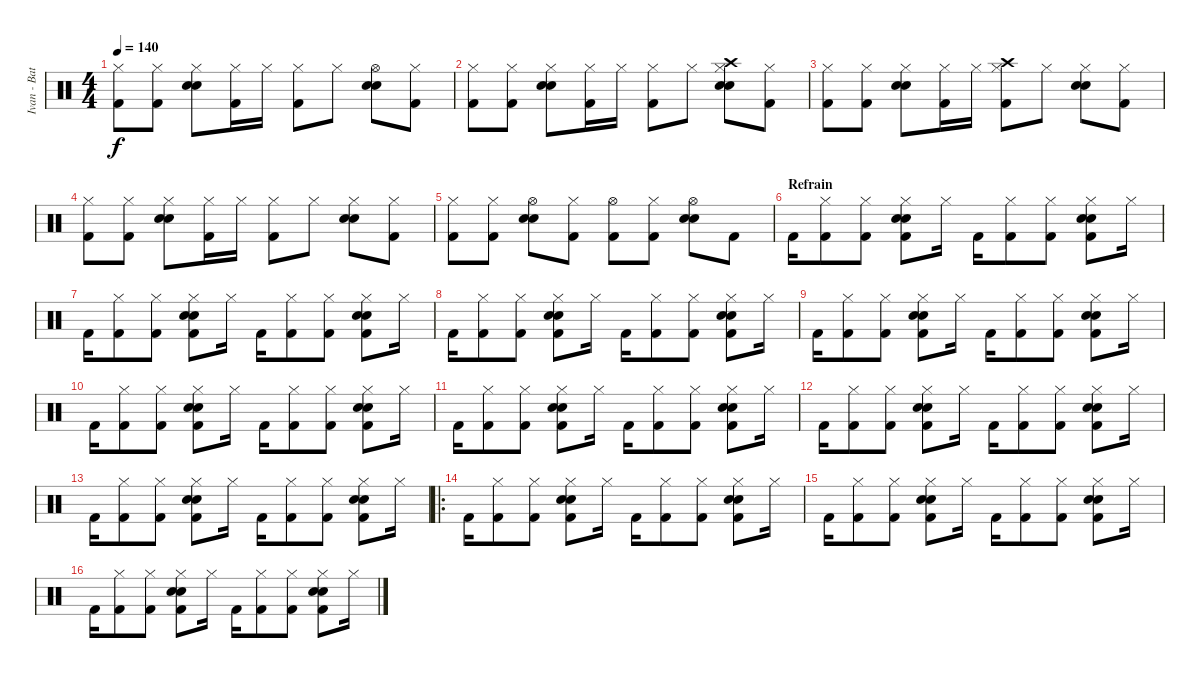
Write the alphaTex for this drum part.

\track ("Ivan - Batterie" "Ivan - Bat") {instrument percussion}
\staff {score}
\articulation defaults
\ts (4 4)
\tempo 140
\clef neutral
\ks c
("Hi-Hat (closed)" "Kick (hit) 2").8{dy f} ("Hi-Hat (closed)" "Kick (hit) 2").8 ("Hi-Hat (closed)" "Electric Snare (hit)" "Snare (hit) 2").8 ("Hi-Hat (closed)" "Kick (hit) 2").16 "Hi-Hat (closed)".16 ("Hi-Hat (closed)" "Kick (hit) 2").8 "Hi-Hat (closed)".8 ("Hi-Hat (open)" "Electric Snare (hit)" "Snare (hit) 2").8 ("Hi-Hat (closed)" "Kick (hit) 2").8 |
("Hi-Hat (closed)" "Kick (hit) 2").8 ("Hi-Hat (closed)" "Kick (hit) 2").8 ("Hi-Hat (closed)" "Electric Snare (hit)" "Snare (hit) 2").8 ("Hi-Hat (closed)" "Kick (hit) 2").16 "Hi-Hat (closed)".16 ("Hi-Hat (closed)" "Kick (hit) 2").8 "Hi-Hat (closed)".8 ("Hi-Hat (closed)" "Crash high (hit)" "Electric Snare (hit)" "Snare (hit) 2").8 ("Hi-Hat (closed)" "Kick (hit) 2").8 |
("Hi-Hat (closed)" "Kick (hit) 2").8 ("Hi-Hat (closed)" "Kick (hit) 2").8 ("Hi-Hat (closed)" "Electric Snare (hit)" "Snare (hit) 2").8 ("Hi-Hat (closed)" "Kick (hit) 2").16 "Hi-Hat (closed)".16 ("Hi-Hat (closed)" "Crash high (hit)" "Kick (hit) 2").8 "Hi-Hat (closed)".8 ("Hi-Hat (closed)" "Electric Snare (hit)" "Snare (hit) 2").8 ("Hi-Hat (closed)" "Kick (hit) 2").8 |
("Hi-Hat (closed)" "Kick (hit) 2").8 ("Hi-Hat (closed)" "Kick (hit) 2").8 ("Hi-Hat (closed)" "Electric Snare (hit)" "Snare (hit) 2").8 ("Hi-Hat (closed)" "Kick (hit) 2").16 "Hi-Hat (closed)".16 ("Hi-Hat (closed)" "Kick (hit) 2").8 "Hi-Hat (closed)".8 ("Hi-Hat (closed)" "Electric Snare (hit)" "Snare (hit) 2").8 ("Hi-Hat (closed)" "Kick (hit) 2").8 |
("Hi-Hat (closed)" "Kick (hit) 2").8 ("Hi-Hat (closed)" "Kick (hit) 2").8 ("Hi-Hat (open)" "Electric Snare (hit)" "Snare (hit) 2").8 ("Hi-Hat (closed)" "Kick (hit) 2").8 ("Hi-Hat (open)" "Kick (hit) 2").8 ("Hi-Hat (closed)" "Kick (hit) 2").8 ("Hi-Hat (open)" "Electric Snare (hit)" "Snare (hit) 2").8 "Kick (hit) 2".8 |
\section ("" "Refrain")
"Kick (hit) 2".16 ("Hi-Hat (closed)" "Kick (hit) 2").8 ("Hi-Hat (closed)" "Kick (hit) 2").8 ("Hi-Hat (closed)" "Electric Snare (hit)" "Snare (hit) 2" "Kick (hit) 2").8 "Hi-Hat (closed)".16 "Kick (hit) 2".16 ("Hi-Hat (closed)" "Kick (hit) 2").8 ("Hi-Hat (closed)" "Kick (hit) 2").8 ("Hi-Hat (closed)" "Electric Snare (hit)" "Snare (hit) 2" "Kick (hit) 2").8 "Hi-Hat (closed)".16 |
"Kick (hit) 2".16 ("Hi-Hat (closed)" "Kick (hit) 2").8 ("Hi-Hat (closed)" "Kick (hit) 2").8 ("Hi-Hat (closed)" "Electric Snare (hit)" "Snare (hit) 2" "Kick (hit) 2").8 "Hi-Hat (closed)".16 "Kick (hit) 2".16 ("Hi-Hat (closed)" "Kick (hit) 2").8 ("Hi-Hat (closed)" "Kick (hit) 2").8 ("Hi-Hat (closed)" "Electric Snare (hit)" "Snare (hit) 2" "Kick (hit) 2").8 "Hi-Hat (closed)".16 |
"Kick (hit) 2".16 ("Hi-Hat (closed)" "Kick (hit) 2").8 ("Hi-Hat (closed)" "Kick (hit) 2").8 ("Hi-Hat (closed)" "Electric Snare (hit)" "Snare (hit) 2" "Kick (hit) 2").8 "Hi-Hat (closed)".16 "Kick (hit) 2".16 ("Hi-Hat (closed)" "Kick (hit) 2").8 ("Hi-Hat (closed)" "Kick (hit) 2").8 ("Hi-Hat (closed)" "Electric Snare (hit)" "Snare (hit) 2" "Kick (hit) 2").8 "Hi-Hat (closed)".16 |
"Kick (hit) 2".16 ("Hi-Hat (closed)" "Kick (hit) 2").8 ("Hi-Hat (closed)" "Kick (hit) 2").8 ("Hi-Hat (closed)" "Electric Snare (hit)" "Snare (hit) 2" "Kick (hit) 2").8 "Hi-Hat (closed)".16 "Kick (hit) 2".16 ("Hi-Hat (closed)" "Kick (hit) 2").8 ("Hi-Hat (closed)" "Kick (hit) 2").8 ("Hi-Hat (closed)" "Electric Snare (hit)" "Snare (hit) 2" "Kick (hit) 2").8 "Hi-Hat (closed)".16 |
"Kick (hit) 2".16 ("Hi-Hat (closed)" "Kick (hit) 2").8 ("Hi-Hat (closed)" "Kick (hit) 2").8 ("Hi-Hat (closed)" "Electric Snare (hit)" "Snare (hit) 2" "Kick (hit) 2").8 "Hi-Hat (closed)".16 "Kick (hit) 2".16 ("Hi-Hat (closed)" "Kick (hit) 2").8 ("Hi-Hat (closed)" "Kick (hit) 2").8 ("Hi-Hat (closed)" "Electric Snare (hit)" "Snare (hit) 2" "Kick (hit) 2").8 "Hi-Hat (closed)".16 |
"Kick (hit) 2".16 ("Hi-Hat (closed)" "Kick (hit) 2").8 ("Hi-Hat (closed)" "Kick (hit) 2").8 ("Hi-Hat (closed)" "Electric Snare (hit)" "Snare (hit) 2" "Kick (hit) 2").8 "Hi-Hat (closed)".16 "Kick (hit) 2".16 ("Hi-Hat (closed)" "Kick (hit) 2").8 ("Hi-Hat (closed)" "Kick (hit) 2").8 ("Hi-Hat (closed)" "Electric Snare (hit)" "Snare (hit) 2" "Kick (hit) 2").8 "Hi-Hat (closed)".16 |
"Kick (hit) 2".16 ("Hi-Hat (closed)" "Kick (hit) 2").8 ("Hi-Hat (closed)" "Kick (hit) 2").8 ("Hi-Hat (closed)" "Electric Snare (hit)" "Snare (hit) 2" "Kick (hit) 2").8 "Hi-Hat (closed)".16 "Kick (hit) 2".16 ("Hi-Hat (closed)" "Kick (hit) 2").8 ("Hi-Hat (closed)" "Kick (hit) 2").8 ("Hi-Hat (closed)" "Electric Snare (hit)" "Snare (hit) 2" "Kick (hit) 2").8 "Hi-Hat (closed)".16 |
"Kick (hit) 2".16 ("Hi-Hat (closed)" "Kick (hit) 2").8 ("Hi-Hat (closed)" "Kick (hit) 2").8 ("Hi-Hat (closed)" "Electric Snare (hit)" "Snare (hit) 2" "Kick (hit) 2").8 "Hi-Hat (closed)".16 "Kick (hit) 2".16 ("Hi-Hat (closed)" "Kick (hit) 2").8 ("Hi-Hat (closed)" "Kick (hit) 2").8 ("Hi-Hat (closed)" "Electric Snare (hit)" "Snare (hit) 2" "Kick (hit) 2").8 "Hi-Hat (closed)".16 |
\ro "Kick (hit) 2".16
("Hi-Hat (closed)" "Kick (hit) 2").8 ("Hi-Hat (closed)" "Kick (hit) 2").8 ("Hi-Hat (closed)" "Electric Snare (hit)" "Snare (hit) 2" "Kick (hit) 2").8 "Hi-Hat (closed)".16 "Kick (hit) 2".16 ("Hi-Hat (closed)" "Kick (hit) 2").8 ("Hi-Hat (closed)" "Kick (hit) 2").8 ("Hi-Hat (closed)" "Electric Snare (hit)" "Snare (hit) 2" "Kick (hit) 2").8 "Hi-Hat (closed)".16 |
"Kick (hit) 2".16 ("Hi-Hat (closed)" "Kick (hit) 2").8 ("Hi-Hat (closed)" "Kick (hit) 2").8 ("Hi-Hat (closed)" "Electric Snare (hit)" "Snare (hit) 2" "Kick (hit) 2").8 "Hi-Hat (closed)".16 "Kick (hit) 2".16 ("Hi-Hat (closed)" "Kick (hit) 2").8 ("Hi-Hat (closed)" "Kick (hit) 2").8 ("Hi-Hat (closed)" "Electric Snare (hit)" "Snare (hit) 2" "Kick (hit) 2").8 "Hi-Hat (closed)".16 |
"Kick (hit) 2".16 ("Hi-Hat (closed)" "Kick (hit) 2").8 ("Hi-Hat (closed)" "Kick (hit) 2").8 ("Hi-Hat (closed)" "Electric Snare (hit)" "Snare (hit) 2" "Kick (hit) 2").8 "Hi-Hat (closed)".16 "Kick (hit) 2".16 ("Hi-Hat (closed)" "Kick (hit) 2").8 ("Hi-Hat (closed)" "Kick (hit) 2").8 ("Hi-Hat (closed)" "Electric Snare (hit)" "Snare (hit) 2" "Kick (hit) 2").8 "Hi-Hat (closed)".16
